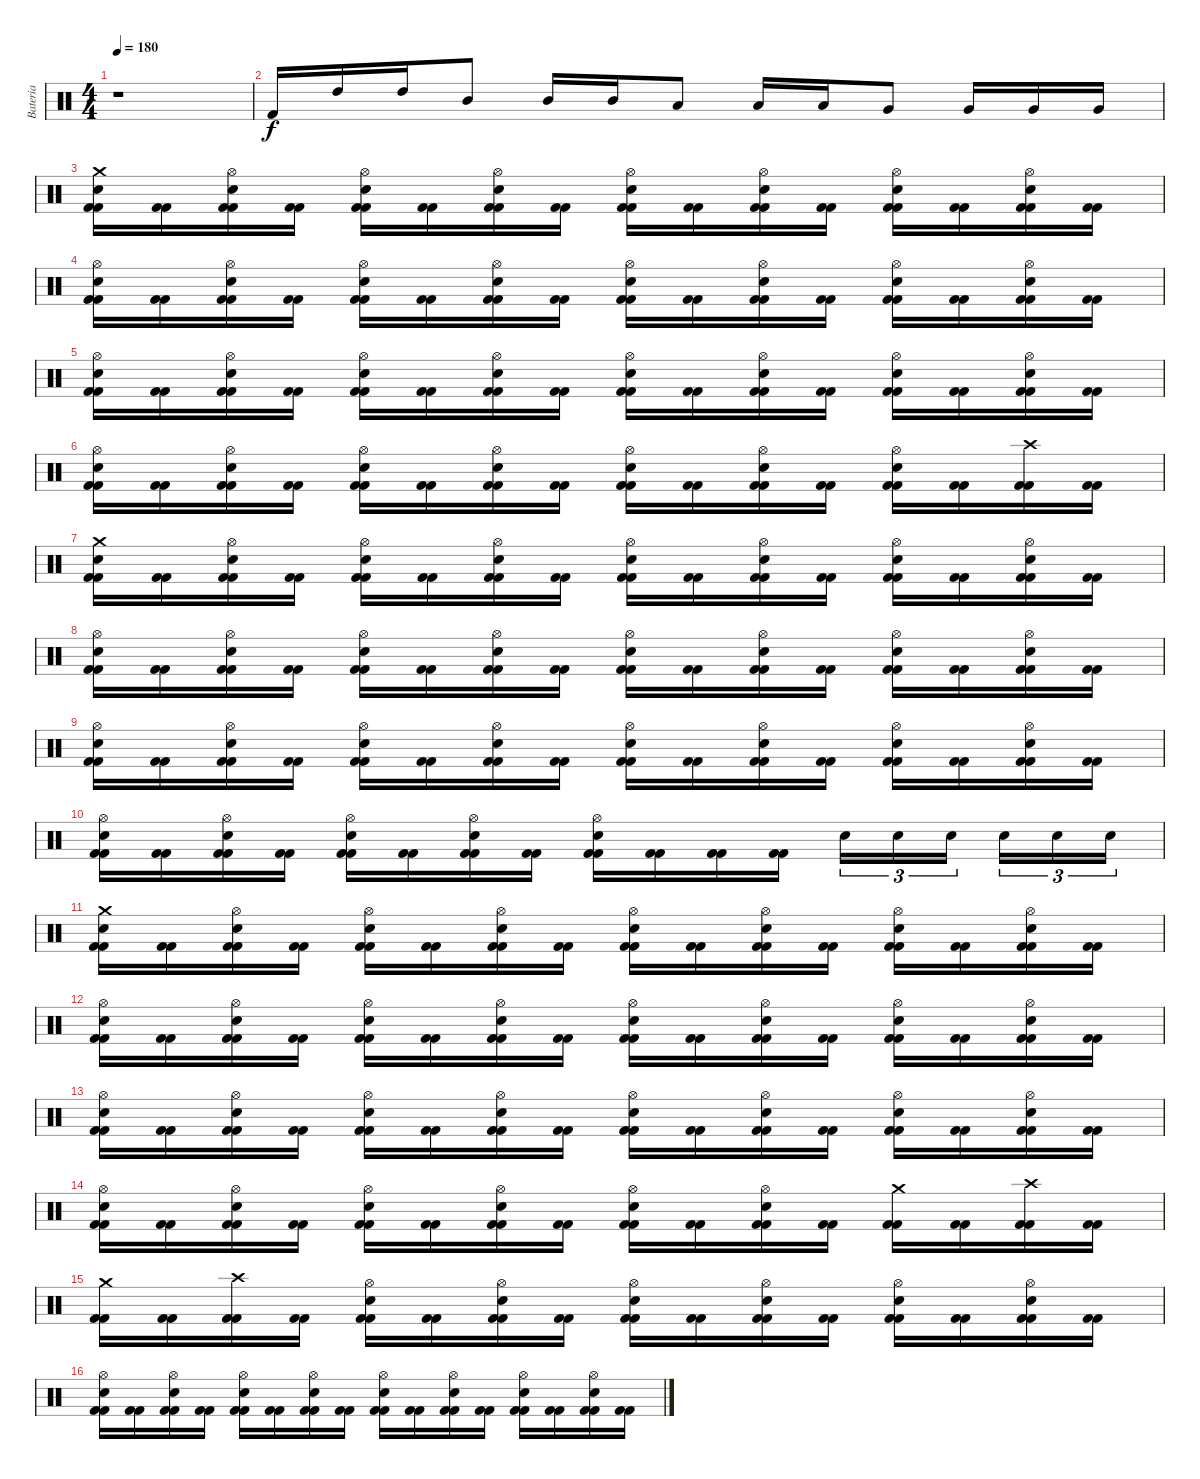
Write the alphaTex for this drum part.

\track ("Bateria" "Bateria") {instrument percussion}
\staff {score}
\articulation defaults
\ts (4 4)
\tempo 180
\clef neutral
\ks c
r.1{dy f} |
"Kick (hit) 2".16 "High Tom (hit)".16 "High Tom (hit)".16 "Mid Tom (hit)".8 "Mid Tom (hit)".16 "Mid Tom (hit)".16 "Low Tom (hit)".8 "Low Tom (hit)".16 "Low Tom (hit)".16 "Very Low Tom (hit)".8 "Very Low Tom (hit)".16 "Very Low Tom (hit)".16 "Very Low Tom (hit)".16 |
("Kick (hit) 2" "Kick (hit) 2" "Snare (hit) 2" "Crash medium (hit)").16 ("Kick (hit) 2" "Kick (hit) 2").16 ("Kick (hit) 2" "Kick (hit) 2" "Hi-Hat (open)" "Snare (hit) 2").16 ("Kick (hit) 2" "Kick (hit) 2").16 ("Kick (hit) 2" "Kick (hit) 2" "Snare (hit) 2" "Hi-Hat (open)").16 ("Kick (hit) 2" "Kick (hit) 2").16 ("Kick (hit) 2" "Kick (hit) 2" "Hi-Hat (open)" "Snare (hit) 2").16 ("Kick (hit) 2" "Kick (hit) 2").16 ("Kick (hit) 2" "Kick (hit) 2" "Snare (hit) 2" "Hi-Hat (open)").16 ("Kick (hit) 2" "Kick (hit) 2").16 ("Kick (hit) 2" "Kick (hit) 2" "Hi-Hat (open)" "Snare (hit) 2").16 ("Kick (hit) 2" "Kick (hit) 2").16 ("Kick (hit) 2" "Kick (hit) 2" "Snare (hit) 2" "Hi-Hat (open)").16 ("Kick (hit) 2" "Kick (hit) 2").16 ("Kick (hit) 2" "Kick (hit) 2" "Hi-Hat (open)" "Snare (hit) 2").16 ("Kick (hit) 2" "Kick (hit) 2").16 |
("Kick (hit) 2" "Kick (hit) 2" "Snare (hit) 2" "Hi-Hat (open)").16 ("Kick (hit) 2" "Kick (hit) 2").16 ("Kick (hit) 2" "Kick (hit) 2" "Hi-Hat (open)" "Snare (hit) 2").16 ("Kick (hit) 2" "Kick (hit) 2").16 ("Kick (hit) 2" "Kick (hit) 2" "Snare (hit) 2" "Hi-Hat (open)").16 ("Kick (hit) 2" "Kick (hit) 2").16 ("Kick (hit) 2" "Kick (hit) 2" "Hi-Hat (open)" "Snare (hit) 2").16 ("Kick (hit) 2" "Kick (hit) 2").16 ("Kick (hit) 2" "Kick (hit) 2" "Snare (hit) 2" "Hi-Hat (open)").16 ("Kick (hit) 2" "Kick (hit) 2").16 ("Kick (hit) 2" "Kick (hit) 2" "Hi-Hat (open)" "Snare (hit) 2").16 ("Kick (hit) 2" "Kick (hit) 2").16 ("Kick (hit) 2" "Kick (hit) 2" "Snare (hit) 2" "Hi-Hat (open)").16 ("Kick (hit) 2" "Kick (hit) 2").16 ("Kick (hit) 2" "Kick (hit) 2" "Hi-Hat (open)" "Snare (hit) 2").16 ("Kick (hit) 2" "Kick (hit) 2").16 |
("Kick (hit) 2" "Kick (hit) 2" "Snare (hit) 2" "Hi-Hat (open)").16 ("Kick (hit) 2" "Kick (hit) 2").16 ("Kick (hit) 2" "Kick (hit) 2" "Hi-Hat (open)" "Snare (hit) 2").16 ("Kick (hit) 2" "Kick (hit) 2").16 ("Kick (hit) 2" "Kick (hit) 2" "Snare (hit) 2" "Hi-Hat (open)").16 ("Kick (hit) 2" "Kick (hit) 2").16 ("Kick (hit) 2" "Kick (hit) 2" "Hi-Hat (open)" "Snare (hit) 2").16 ("Kick (hit) 2" "Kick (hit) 2").16 ("Kick (hit) 2" "Kick (hit) 2" "Snare (hit) 2" "Hi-Hat (open)").16 ("Kick (hit) 2" "Kick (hit) 2").16 ("Kick (hit) 2" "Kick (hit) 2" "Hi-Hat (open)" "Snare (hit) 2").16 ("Kick (hit) 2" "Kick (hit) 2").16 ("Kick (hit) 2" "Kick (hit) 2" "Snare (hit) 2" "Hi-Hat (open)").16 ("Kick (hit) 2" "Kick (hit) 2").16 ("Kick (hit) 2" "Kick (hit) 2" "Hi-Hat (open)" "Snare (hit) 2").16 ("Kick (hit) 2" "Kick (hit) 2").16 |
("Kick (hit) 2" "Kick (hit) 2" "Snare (hit) 2" "Hi-Hat (open)").16 ("Kick (hit) 2" "Kick (hit) 2").16 ("Kick (hit) 2" "Kick (hit) 2" "Hi-Hat (open)" "Snare (hit) 2").16 ("Kick (hit) 2" "Kick (hit) 2").16 ("Kick (hit) 2" "Kick (hit) 2" "Snare (hit) 2" "Hi-Hat (open)").16 ("Kick (hit) 2" "Kick (hit) 2").16 ("Kick (hit) 2" "Kick (hit) 2" "Hi-Hat (open)" "Snare (hit) 2").16 ("Kick (hit) 2" "Kick (hit) 2").16 ("Kick (hit) 2" "Kick (hit) 2" "Snare (hit) 2" "Hi-Hat (open)").16 ("Kick (hit) 2" "Kick (hit) 2").16 ("Kick (hit) 2" "Kick (hit) 2" "Hi-Hat (open)" "Snare (hit) 2").16 ("Kick (hit) 2" "Kick (hit) 2").16 ("Kick (hit) 2" "Kick (hit) 2" "Snare (hit) 2" "Hi-Hat (open)").16 ("Kick (hit) 2" "Kick (hit) 2").16 ("Kick (hit) 2" "Kick (hit) 2" "Crash high (hit)").16 ("Kick (hit) 2" "Kick (hit) 2").16 |
("Kick (hit) 2" "Kick (hit) 2" "Snare (hit) 2" "Crash medium (hit)").16 ("Kick (hit) 2" "Kick (hit) 2").16 ("Kick (hit) 2" "Kick (hit) 2" "Hi-Hat (open)" "Snare (hit) 2").16 ("Kick (hit) 2" "Kick (hit) 2").16 ("Kick (hit) 2" "Kick (hit) 2" "Snare (hit) 2" "Hi-Hat (open)").16 ("Kick (hit) 2" "Kick (hit) 2").16 ("Kick (hit) 2" "Kick (hit) 2" "Hi-Hat (open)" "Snare (hit) 2").16 ("Kick (hit) 2" "Kick (hit) 2").16 ("Kick (hit) 2" "Kick (hit) 2" "Snare (hit) 2" "Hi-Hat (open)").16 ("Kick (hit) 2" "Kick (hit) 2").16 ("Kick (hit) 2" "Kick (hit) 2" "Hi-Hat (open)" "Snare (hit) 2").16 ("Kick (hit) 2" "Kick (hit) 2").16 ("Kick (hit) 2" "Kick (hit) 2" "Snare (hit) 2" "Hi-Hat (open)").16 ("Kick (hit) 2" "Kick (hit) 2").16 ("Kick (hit) 2" "Kick (hit) 2" "Hi-Hat (open)" "Snare (hit) 2").16 ("Kick (hit) 2" "Kick (hit) 2").16 |
("Kick (hit) 2" "Kick (hit) 2" "Snare (hit) 2" "Hi-Hat (open)").16 ("Kick (hit) 2" "Kick (hit) 2").16 ("Kick (hit) 2" "Kick (hit) 2" "Hi-Hat (open)" "Snare (hit) 2").16 ("Kick (hit) 2" "Kick (hit) 2").16 ("Kick (hit) 2" "Kick (hit) 2" "Snare (hit) 2" "Hi-Hat (open)").16 ("Kick (hit) 2" "Kick (hit) 2").16 ("Kick (hit) 2" "Kick (hit) 2" "Hi-Hat (open)" "Snare (hit) 2").16 ("Kick (hit) 2" "Kick (hit) 2").16 ("Kick (hit) 2" "Kick (hit) 2" "Snare (hit) 2" "Hi-Hat (open)").16 ("Kick (hit) 2" "Kick (hit) 2").16 ("Kick (hit) 2" "Kick (hit) 2" "Hi-Hat (open)" "Snare (hit) 2").16 ("Kick (hit) 2" "Kick (hit) 2").16 ("Kick (hit) 2" "Kick (hit) 2" "Snare (hit) 2" "Hi-Hat (open)").16 ("Kick (hit) 2" "Kick (hit) 2").16 ("Kick (hit) 2" "Kick (hit) 2" "Hi-Hat (open)" "Snare (hit) 2").16 ("Kick (hit) 2" "Kick (hit) 2").16 |
("Kick (hit) 2" "Kick (hit) 2" "Snare (hit) 2" "Hi-Hat (open)").16 ("Kick (hit) 2" "Kick (hit) 2").16 ("Kick (hit) 2" "Kick (hit) 2" "Hi-Hat (open)" "Snare (hit) 2").16 ("Kick (hit) 2" "Kick (hit) 2").16 ("Kick (hit) 2" "Kick (hit) 2" "Snare (hit) 2" "Hi-Hat (open)").16 ("Kick (hit) 2" "Kick (hit) 2").16 ("Kick (hit) 2" "Kick (hit) 2" "Hi-Hat (open)" "Snare (hit) 2").16 ("Kick (hit) 2" "Kick (hit) 2").16 ("Kick (hit) 2" "Kick (hit) 2" "Snare (hit) 2" "Hi-Hat (open)").16 ("Kick (hit) 2" "Kick (hit) 2").16 ("Kick (hit) 2" "Kick (hit) 2" "Hi-Hat (open)" "Snare (hit) 2").16 ("Kick (hit) 2" "Kick (hit) 2").16 ("Kick (hit) 2" "Kick (hit) 2" "Snare (hit) 2" "Hi-Hat (open)").16 ("Kick (hit) 2" "Kick (hit) 2").16 ("Kick (hit) 2" "Kick (hit) 2" "Hi-Hat (open)" "Snare (hit) 2").16 ("Kick (hit) 2" "Kick (hit) 2").16 |
("Kick (hit) 2" "Kick (hit) 2" "Snare (hit) 2" "Hi-Hat (open)").16 ("Kick (hit) 2" "Kick (hit) 2").16 ("Kick (hit) 2" "Kick (hit) 2" "Hi-Hat (open)" "Snare (hit) 2").16 ("Kick (hit) 2" "Kick (hit) 2").16 ("Kick (hit) 2" "Kick (hit) 2" "Snare (hit) 2" "Hi-Hat (open)").16 ("Kick (hit) 2" "Kick (hit) 2").16 ("Kick (hit) 2" "Kick (hit) 2" "Hi-Hat (open)" "Snare (hit) 2").16 ("Kick (hit) 2" "Kick (hit) 2").16 ("Kick (hit) 2" "Kick (hit) 2" "Hi-Hat (open)" "Snare (hit) 2").16 ("Kick (hit) 2" "Kick (hit) 2").16 ("Kick (hit) 2" "Kick (hit) 2").16 ("Kick (hit) 2" "Kick (hit) 2").16 "Electric Snare (hit)".16{tu (3 2)} "Electric Snare (hit)".16{tu (3 2)} "Electric Snare (hit)".16{tu (3 2)} "Electric Snare (hit)".16{tu (3 2)} "Electric Snare (hit)".16{tu (3 2)} "Electric Snare (hit)".16{tu (3 2)} |
("Kick (hit) 2" "Kick (hit) 2" "Snare (hit) 2" "Crash medium (hit)").16 ("Kick (hit) 2" "Kick (hit) 2").16 ("Kick (hit) 2" "Kick (hit) 2" "Hi-Hat (open)" "Snare (hit) 2").16 ("Kick (hit) 2" "Kick (hit) 2").16 ("Kick (hit) 2" "Kick (hit) 2" "Snare (hit) 2" "Hi-Hat (open)").16 ("Kick (hit) 2" "Kick (hit) 2").16 ("Kick (hit) 2" "Kick (hit) 2" "Hi-Hat (open)" "Snare (hit) 2").16 ("Kick (hit) 2" "Kick (hit) 2").16 ("Kick (hit) 2" "Kick (hit) 2" "Snare (hit) 2" "Hi-Hat (open)").16 ("Kick (hit) 2" "Kick (hit) 2").16 ("Kick (hit) 2" "Kick (hit) 2" "Hi-Hat (open)" "Snare (hit) 2").16 ("Kick (hit) 2" "Kick (hit) 2").16 ("Kick (hit) 2" "Kick (hit) 2" "Snare (hit) 2" "Hi-Hat (open)").16 ("Kick (hit) 2" "Kick (hit) 2").16 ("Kick (hit) 2" "Kick (hit) 2" "Hi-Hat (open)" "Snare (hit) 2").16 ("Kick (hit) 2" "Kick (hit) 2").16 |
("Kick (hit) 2" "Kick (hit) 2" "Snare (hit) 2" "Hi-Hat (open)").16 ("Kick (hit) 2" "Kick (hit) 2").16 ("Kick (hit) 2" "Kick (hit) 2" "Hi-Hat (open)" "Snare (hit) 2").16 ("Kick (hit) 2" "Kick (hit) 2").16 ("Kick (hit) 2" "Kick (hit) 2" "Snare (hit) 2" "Hi-Hat (open)").16 ("Kick (hit) 2" "Kick (hit) 2").16 ("Kick (hit) 2" "Kick (hit) 2" "Hi-Hat (open)" "Snare (hit) 2").16 ("Kick (hit) 2" "Kick (hit) 2").16 ("Kick (hit) 2" "Kick (hit) 2" "Snare (hit) 2" "Hi-Hat (open)").16 ("Kick (hit) 2" "Kick (hit) 2").16 ("Kick (hit) 2" "Kick (hit) 2" "Hi-Hat (open)" "Snare (hit) 2").16 ("Kick (hit) 2" "Kick (hit) 2").16 ("Kick (hit) 2" "Kick (hit) 2" "Snare (hit) 2" "Hi-Hat (open)").16 ("Kick (hit) 2" "Kick (hit) 2").16 ("Kick (hit) 2" "Kick (hit) 2" "Hi-Hat (open)" "Snare (hit) 2").16 ("Kick (hit) 2" "Kick (hit) 2").16 |
("Kick (hit) 2" "Kick (hit) 2" "Snare (hit) 2" "Hi-Hat (open)").16 ("Kick (hit) 2" "Kick (hit) 2").16 ("Kick (hit) 2" "Kick (hit) 2" "Hi-Hat (open)" "Snare (hit) 2").16 ("Kick (hit) 2" "Kick (hit) 2").16 ("Kick (hit) 2" "Kick (hit) 2" "Snare (hit) 2" "Hi-Hat (open)").16 ("Kick (hit) 2" "Kick (hit) 2").16 ("Kick (hit) 2" "Kick (hit) 2" "Hi-Hat (open)" "Snare (hit) 2").16 ("Kick (hit) 2" "Kick (hit) 2").16 ("Kick (hit) 2" "Kick (hit) 2" "Snare (hit) 2" "Hi-Hat (open)").16 ("Kick (hit) 2" "Kick (hit) 2").16 ("Kick (hit) 2" "Kick (hit) 2" "Hi-Hat (open)" "Snare (hit) 2").16 ("Kick (hit) 2" "Kick (hit) 2").16 ("Kick (hit) 2" "Kick (hit) 2" "Snare (hit) 2" "Hi-Hat (open)").16 ("Kick (hit) 2" "Kick (hit) 2").16 ("Kick (hit) 2" "Kick (hit) 2" "Hi-Hat (open)" "Snare (hit) 2").16 ("Kick (hit) 2" "Kick (hit) 2").16 |
("Kick (hit) 2" "Kick (hit) 2" "Snare (hit) 2" "Hi-Hat (open)").16 ("Kick (hit) 2" "Kick (hit) 2").16 ("Kick (hit) 2" "Kick (hit) 2" "Hi-Hat (open)" "Snare (hit) 2").16 ("Kick (hit) 2" "Kick (hit) 2").16 ("Kick (hit) 2" "Kick (hit) 2" "Snare (hit) 2" "Hi-Hat (open)").16 ("Kick (hit) 2" "Kick (hit) 2").16 ("Kick (hit) 2" "Kick (hit) 2" "Hi-Hat (open)" "Snare (hit) 2").16 ("Kick (hit) 2" "Kick (hit) 2").16 ("Kick (hit) 2" "Kick (hit) 2" "Snare (hit) 2" "Hi-Hat (open)").16 ("Kick (hit) 2" "Kick (hit) 2").16 ("Kick (hit) 2" "Kick (hit) 2" "Hi-Hat (open)" "Snare (hit) 2").16 ("Kick (hit) 2" "Kick (hit) 2").16 ("Kick (hit) 2" "Kick (hit) 2" "Crash medium (hit)").16 ("Kick (hit) 2" "Kick (hit) 2").16 ("Kick (hit) 2" "Kick (hit) 2" "Crash high (hit)").16 ("Kick (hit) 2" "Kick (hit) 2").16 |
("Kick (hit) 2" "Kick (hit) 2" "Crash medium (hit)").16 ("Kick (hit) 2" "Kick (hit) 2").16 ("Kick (hit) 2" "Kick (hit) 2" "Crash high (hit)").16 ("Kick (hit) 2" "Kick (hit) 2").16 ("Kick (hit) 2" "Kick (hit) 2" "Snare (hit) 2" "Hi-Hat (open)").16 ("Kick (hit) 2" "Kick (hit) 2").16 ("Kick (hit) 2" "Kick (hit) 2" "Hi-Hat (open)" "Snare (hit) 2").16 ("Kick (hit) 2" "Kick (hit) 2").16 ("Kick (hit) 2" "Kick (hit) 2" "Snare (hit) 2" "Hi-Hat (open)").16 ("Kick (hit) 2" "Kick (hit) 2").16 ("Kick (hit) 2" "Kick (hit) 2" "Hi-Hat (open)" "Snare (hit) 2").16 ("Kick (hit) 2" "Kick (hit) 2").16 ("Kick (hit) 2" "Kick (hit) 2" "Snare (hit) 2" "Hi-Hat (open)").16 ("Kick (hit) 2" "Kick (hit) 2").16 ("Kick (hit) 2" "Kick (hit) 2" "Hi-Hat (open)" "Snare (hit) 2").16 ("Kick (hit) 2" "Kick (hit) 2").16 |
("Kick (hit) 2" "Kick (hit) 2" "Snare (hit) 2" "Hi-Hat (open)").16 ("Kick (hit) 2" "Kick (hit) 2").16 ("Kick (hit) 2" "Kick (hit) 2" "Hi-Hat (open)" "Snare (hit) 2").16 ("Kick (hit) 2" "Kick (hit) 2").16 ("Kick (hit) 2" "Kick (hit) 2" "Snare (hit) 2" "Hi-Hat (open)").16 ("Kick (hit) 2" "Kick (hit) 2").16 ("Kick (hit) 2" "Kick (hit) 2" "Hi-Hat (open)" "Snare (hit) 2").16 ("Kick (hit) 2" "Kick (hit) 2").16 ("Kick (hit) 2" "Kick (hit) 2" "Snare (hit) 2" "Hi-Hat (open)").16 ("Kick (hit) 2" "Kick (hit) 2").16 ("Kick (hit) 2" "Kick (hit) 2" "Hi-Hat (open)" "Snare (hit) 2").16 ("Kick (hit) 2" "Kick (hit) 2").16 ("Kick (hit) 2" "Kick (hit) 2" "Snare (hit) 2" "Hi-Hat (open)").16 ("Kick (hit) 2" "Kick (hit) 2").16 ("Kick (hit) 2" "Kick (hit) 2" "Hi-Hat (open)" "Snare (hit) 2").16 ("Kick (hit) 2" "Kick (hit) 2").16
